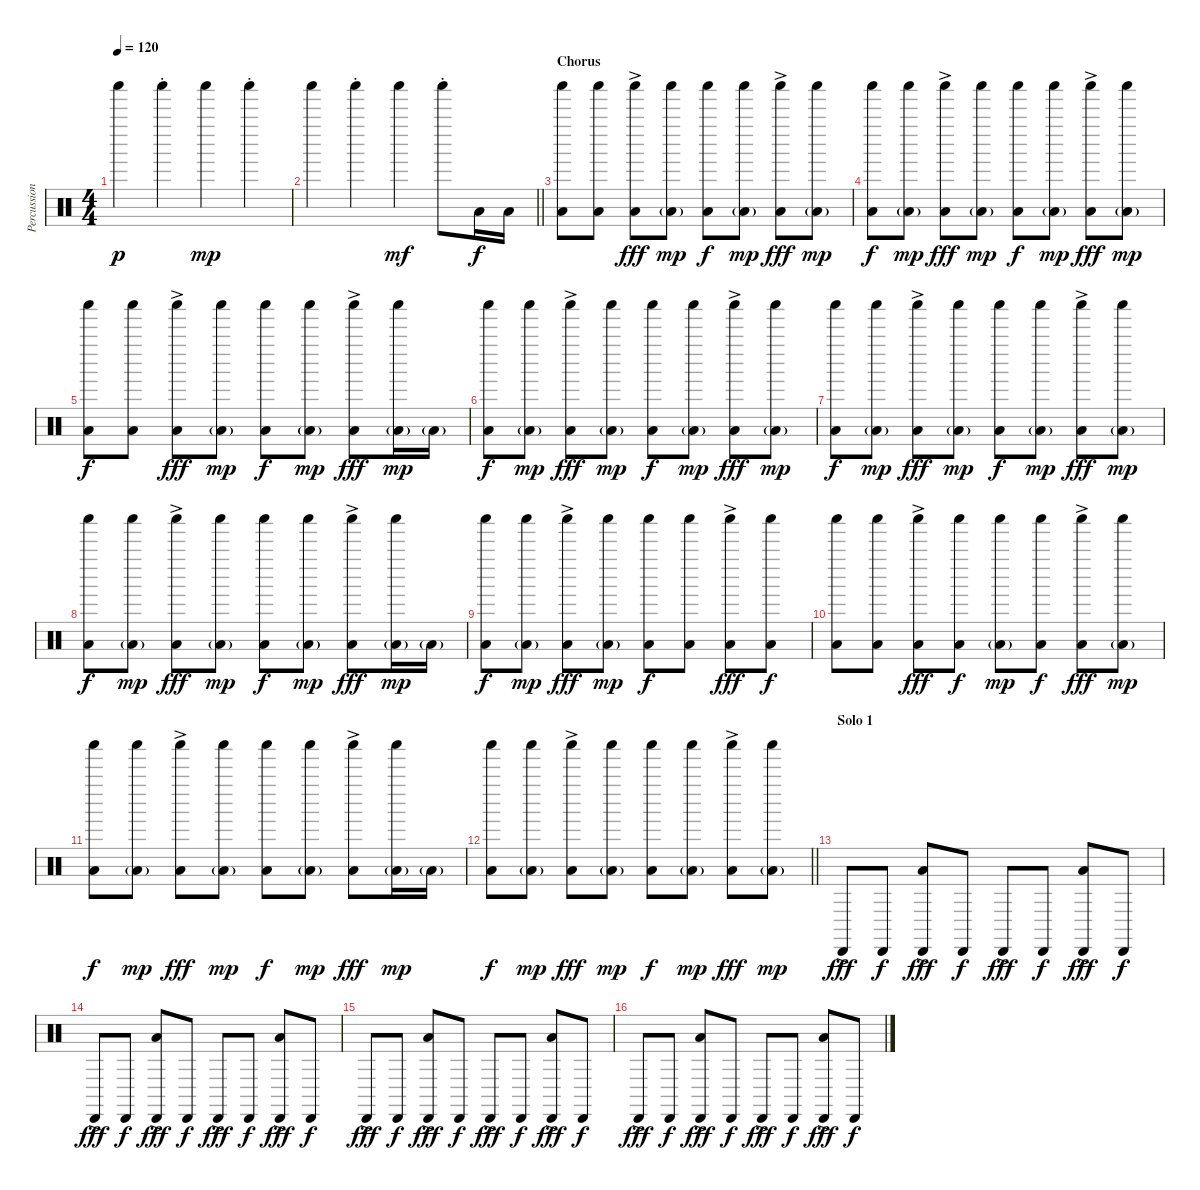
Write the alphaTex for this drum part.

\track ("Percussion" "Percussion") {instrument percussion}
\staff {score}
\articulation defaults
\ts (4 4)
\tempo 120
\clef neutral
\ks c "Shaker (hit)".4{dy p} "Shaker (hit)"{st}.4 "Shaker (hit)".4{dy mp} "Shaker (hit)"{st}.4
|
\barLineRight lightlight "Shaker (hit)".4 "Shaker (hit)"{st}.4 "Shaker (hit)".4{dy mf} "Shaker (hit)"{st}.8 "Low Tom (hit)".16{dy f} "Low Tom (hit)".16
|
\section ("" "Chorus")
("Shaker (hit)" "Low Tom (hit)").8{volume 11} ("Shaker (hit)" "Low Tom (hit)").8 ("Shaker (hit)" "Low Tom (hit)"{ac}).8{dy fff} ("Shaker (hit)" "Low Tom (hit)"{g}).8{dy mp} ("Shaker (hit)" "Low Tom (hit)").8{dy f} ("Shaker (hit)" "Low Tom (hit)"{g}).8{dy mp} ("Shaker (hit)" "Low Tom (hit)"{ac}).8{dy fff} ("Shaker (hit)" "Low Tom (hit)"{g}).8{dy mp} |
("Shaker (hit)" "Low Tom (hit)").8{dy f} ("Shaker (hit)" "Low Tom (hit)"{g}).8{dy mp} ("Shaker (hit)" "Low Tom (hit)"{ac}).8{dy fff} ("Shaker (hit)" "Low Tom (hit)"{g}).8{dy mp} ("Shaker (hit)" "Low Tom (hit)").8{dy f} ("Shaker (hit)" "Low Tom (hit)"{g}).8{dy mp} ("Shaker (hit)" "Low Tom (hit)"{ac}).8{dy fff} ("Shaker (hit)" "Low Tom (hit)"{g}).8{dy mp} |
("Shaker (hit)" "Low Tom (hit)").8{dy f} ("Shaker (hit)" "Low Tom (hit)").8 ("Shaker (hit)" "Low Tom (hit)"{ac}).8{dy fff} ("Shaker (hit)" "Low Tom (hit)"{g}).8{dy mp} ("Shaker (hit)" "Low Tom (hit)").8{dy f} ("Shaker (hit)" "Low Tom (hit)"{g}).8{dy mp} ("Shaker (hit)" "Low Tom (hit)"{ac}).8{dy fff} ("Shaker (hit)" "Low Tom (hit)"{g}).16{dy mp} "Low Tom (hit)"{g}.16 |
("Shaker (hit)" "Low Tom (hit)").8{dy f} ("Shaker (hit)" "Low Tom (hit)"{g}).8{dy mp} ("Shaker (hit)" "Low Tom (hit)"{ac}).8{dy fff} ("Shaker (hit)" "Low Tom (hit)"{g}).8{dy mp} ("Shaker (hit)" "Low Tom (hit)").8{dy f} ("Shaker (hit)" "Low Tom (hit)"{g}).8{dy mp} ("Shaker (hit)" "Low Tom (hit)"{ac}).8{dy fff} ("Shaker (hit)" "Low Tom (hit)"{g}).8{dy mp} |
("Shaker (hit)" "Low Tom (hit)").8{dy f} ("Shaker (hit)" "Low Tom (hit)"{g}).8{dy mp} ("Shaker (hit)" "Low Tom (hit)"{ac}).8{dy fff} ("Shaker (hit)" "Low Tom (hit)"{g}).8{dy mp} ("Shaker (hit)" "Low Tom (hit)").8{dy f} ("Shaker (hit)" "Low Tom (hit)"{g}).8{dy mp} ("Shaker (hit)" "Low Tom (hit)"{ac}).8{dy fff} ("Shaker (hit)" "Low Tom (hit)"{g}).8{dy mp} |
("Shaker (hit)" "Low Tom (hit)").8{dy f} ("Shaker (hit)" "Low Tom (hit)"{g}).8{dy mp} ("Shaker (hit)" "Low Tom (hit)"{ac}).8{dy fff} ("Shaker (hit)" "Low Tom (hit)"{g}).8{dy mp} ("Shaker (hit)" "Low Tom (hit)").8{dy f} ("Shaker (hit)" "Low Tom (hit)"{g}).8{dy mp} ("Shaker (hit)" "Low Tom (hit)"{ac}).8{dy fff} ("Shaker (hit)" "Low Tom (hit)"{g}).16{dy mp} "Low Tom (hit)"{g}.16 |
("Shaker (hit)" "Low Tom (hit)").8{dy f} ("Shaker (hit)" "Low Tom (hit)"{g}).8{dy mp} ("Shaker (hit)" "Low Tom (hit)"{ac}).8{dy fff} ("Shaker (hit)" "Low Tom (hit)"{g}).8{dy mp} ("Shaker (hit)" "Low Tom (hit)").8{dy f} ("Shaker (hit)" "Low Tom (hit)").8 ("Shaker (hit)" "Low Tom (hit)"{ac}).8{dy fff} ("Shaker (hit)" "Low Tom (hit)").8{dy f} |
("Shaker (hit)" "Low Tom (hit)").8 ("Shaker (hit)" "Low Tom (hit)").8 ("Shaker (hit)" "Low Tom (hit)"{ac}).8{dy fff} ("Shaker (hit)" "Low Tom (hit)").8{dy f} ("Shaker (hit)" "Low Tom (hit)"{g}).8{dy mp} ("Shaker (hit)" "Low Tom (hit)").8{dy f} ("Shaker (hit)" "Low Tom (hit)"{ac}).8{dy fff} ("Shaker (hit)" "Low Tom (hit)"{g}).8{dy mp} |
("Shaker (hit)" "Low Tom (hit)").8{dy f} ("Shaker (hit)" "Low Tom (hit)"{g}).8{dy mp} ("Shaker (hit)" "Low Tom (hit)"{ac}).8{dy fff} ("Shaker (hit)" "Low Tom (hit)"{g}).8{dy mp} ("Shaker (hit)" "Low Tom (hit)").8{dy f} ("Shaker (hit)" "Low Tom (hit)"{g}).8{dy mp} ("Shaker (hit)" "Low Tom (hit)"{ac}).8{dy fff} ("Shaker (hit)" "Low Tom (hit)"{g}).16{dy mp} "Low Tom (hit)"{g}.16 |
\barLineRight lightlight
("Shaker (hit)" "Low Tom (hit)").8{dy f} ("Shaker (hit)" "Low Tom (hit)"{g}).8{dy mp} ("Shaker (hit)" "Low Tom (hit)"{ac}).8{dy fff} ("Shaker (hit)" "Low Tom (hit)"{g}).8{dy mp} ("Shaker (hit)" "Low Tom (hit)").8{dy f} ("Shaker (hit)" "Low Tom (hit)"{g}).8{dy mp} ("Shaker (hit)" "Low Tom (hit)"{ac}).8{dy fff} ("Shaker (hit)" "Low Tom (hit)"{g}).8{dy mp} |
\section ("" "Solo 1")
"Cabasa (hit)"{ac}.8{dy fff} "Cabasa (hit)".8{dy f} ("Cabasa (hit)"{ac} "Low Tom (hit)").8{dy fff} "Cabasa (hit)".8{dy f} "Cabasa (hit)"{ac}.8{dy fff} "Cabasa (hit)".8{dy f} ("Cabasa (hit)"{ac} "Low Tom (hit)").8{dy fff} "Cabasa (hit)".8{dy f} |
"Cabasa (hit)"{ac}.8{dy fff} "Cabasa (hit)".8{dy f} ("Cabasa (hit)"{ac} "Low Tom (hit)").8{dy fff} "Cabasa (hit)".8{dy f} "Cabasa (hit)"{ac}.8{dy fff} "Cabasa (hit)".8{dy f} ("Cabasa (hit)"{ac} "Low Tom (hit)").8{dy fff} "Cabasa (hit)".8{dy f} |
"Cabasa (hit)"{ac}.8{dy fff} "Cabasa (hit)".8{dy f} ("Cabasa (hit)"{ac} "Low Tom (hit)").8{dy fff} "Cabasa (hit)".8{dy f} "Cabasa (hit)"{ac}.8{dy fff} "Cabasa (hit)".8{dy f} ("Cabasa (hit)"{ac} "Low Tom (hit)").8{dy fff} "Cabasa (hit)".8{dy f} |
"Cabasa (hit)"{ac}.8{dy fff} "Cabasa (hit)".8{dy f} ("Cabasa (hit)"{ac} "Low Tom (hit)").8{dy fff} "Cabasa (hit)".8{dy f} "Cabasa (hit)"{ac}.8{dy fff} "Cabasa (hit)".8{dy f} ("Cabasa (hit)"{ac} "Low Tom (hit)").8{dy fff} "Cabasa (hit)".8{dy f}
